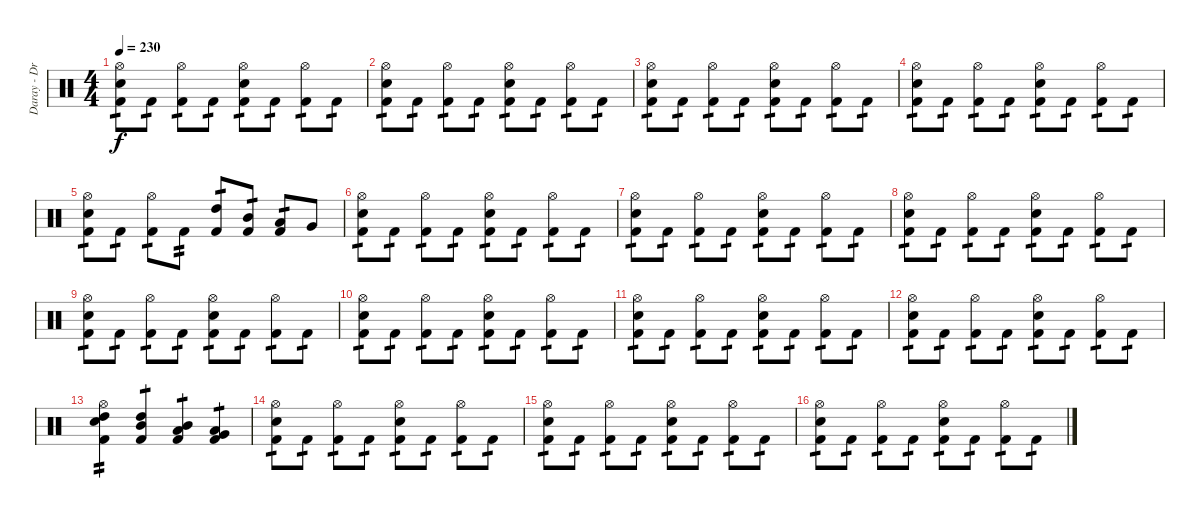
\track ("Daray - Drums" "Daray - Dr") {instrument percussion}
\staff {score}
\articulation defaults
\ts (4 4)
\tempo 230
\clef neutral
\ks c
("Hi-Hat (open)" "Electric Snare (hit)" "Kick (hit) 2").8{tp 1 dy f} "Kick (hit) 2".8{tp 1} ("Hi-Hat (open)" "Kick (hit) 2").8{tp 1} "Kick (hit) 2".8{tp 1} ("Hi-Hat (open)" "Electric Snare (hit)" "Kick (hit) 2").8{tp 1} "Kick (hit) 2".8{tp 1} ("Hi-Hat (open)" "Kick (hit) 2").8{tp 1} "Kick (hit) 2".8{tp 1} |
("Hi-Hat (open)" "Electric Snare (hit)" "Kick (hit) 2").8{tp 1} "Kick (hit) 2".8{tp 1} ("Hi-Hat (open)" "Kick (hit) 2").8{tp 1} "Kick (hit) 2".8{tp 1} ("Hi-Hat (open)" "Electric Snare (hit)" "Kick (hit) 2").8{tp 1} "Kick (hit) 2".8{tp 1} ("Hi-Hat (open)" "Kick (hit) 2").8{tp 1} "Kick (hit) 2".8{tp 1} |
("Hi-Hat (open)" "Electric Snare (hit)" "Kick (hit) 2").8{tp 1} "Kick (hit) 2".8{tp 1} ("Hi-Hat (open)" "Kick (hit) 2").8{tp 1} "Kick (hit) 2".8{tp 1} ("Hi-Hat (open)" "Electric Snare (hit)" "Kick (hit) 2").8{tp 1} "Kick (hit) 2".8{tp 1} ("Hi-Hat (open)" "Kick (hit) 2").8{tp 1} "Kick (hit) 2".8{tp 1} |
("Hi-Hat (open)" "Electric Snare (hit)" "Kick (hit) 2").8{tp 1} "Kick (hit) 2".8{tp 1} ("Hi-Hat (open)" "Kick (hit) 2").8{tp 1} "Kick (hit) 2".8{tp 1} ("Hi-Hat (open)" "Electric Snare (hit)" "Kick (hit) 2").8{tp 1} "Kick (hit) 2".8{tp 1} ("Hi-Hat (open)" "Kick (hit) 2").8{tp 1} "Kick (hit) 2".8{tp 1} |
("Hi-Hat (open)" "Electric Snare (hit)" "Kick (hit) 2").8{tp 1} "Kick (hit) 2".8{tp 1} ("Hi-Hat (open)" "Kick (hit) 2").8{tp 1} "Kick (hit) 2".8{tp 2} ("High Tom (hit)" "Kick (hit) 2").8{tp 1} ("Mid Tom (hit)" "Kick (hit) 2").8{tp 1} ("Low Tom (hit)" "Kick (hit) 2").8{tp 1} "Very Low Tom (hit)".8 |
("Hi-Hat (open)" "Electric Snare (hit)" "Kick (hit) 2").8{tp 1} "Kick (hit) 2".8{tp 1} ("Hi-Hat (open)" "Kick (hit) 2").8{tp 1} "Kick (hit) 2".8{tp 1} ("Hi-Hat (open)" "Electric Snare (hit)" "Kick (hit) 2").8{tp 1} "Kick (hit) 2".8{tp 1} ("Hi-Hat (open)" "Kick (hit) 2").8{tp 1} "Kick (hit) 2".8{tp 1} |
("Hi-Hat (open)" "Electric Snare (hit)" "Kick (hit) 2").8{tp 1} "Kick (hit) 2".8{tp 1} ("Hi-Hat (open)" "Kick (hit) 2").8{tp 1} "Kick (hit) 2".8{tp 1} ("Hi-Hat (open)" "Electric Snare (hit)" "Kick (hit) 2").8{tp 1} "Kick (hit) 2".8{tp 1} ("Hi-Hat (open)" "Kick (hit) 2").8{tp 1} "Kick (hit) 2".8{tp 1} |
("Hi-Hat (open)" "Electric Snare (hit)" "Kick (hit) 2").8{tp 1} "Kick (hit) 2".8{tp 1} ("Hi-Hat (open)" "Kick (hit) 2").8{tp 1} "Kick (hit) 2".8{tp 1} ("Hi-Hat (open)" "Electric Snare (hit)" "Kick (hit) 2").8{tp 1} "Kick (hit) 2".8{tp 1} ("Hi-Hat (open)" "Kick (hit) 2").8{tp 1} "Kick (hit) 2".8{tp 1} |
("Hi-Hat (open)" "Electric Snare (hit)" "Kick (hit) 2").8{tp 1} "Kick (hit) 2".8{tp 1} ("Hi-Hat (open)" "Kick (hit) 2").8{tp 1} "Kick (hit) 2".8{tp 1} ("Hi-Hat (open)" "Electric Snare (hit)" "Kick (hit) 2").8{tp 1} "Kick (hit) 2".8{tp 1} ("Hi-Hat (open)" "Kick (hit) 2").8{tp 1} "Kick (hit) 2".8{tp 1} |
("Hi-Hat (open)" "Electric Snare (hit)" "Kick (hit) 2").8{tp 1} "Kick (hit) 2".8{tp 1} ("Hi-Hat (open)" "Kick (hit) 2").8{tp 1} "Kick (hit) 2".8{tp 1} ("Hi-Hat (open)" "Electric Snare (hit)" "Kick (hit) 2").8{tp 1} "Kick (hit) 2".8{tp 1} ("Hi-Hat (open)" "Kick (hit) 2").8{tp 1} "Kick (hit) 2".8{tp 1} |
("Hi-Hat (open)" "Electric Snare (hit)" "Kick (hit) 2").8{tp 1} "Kick (hit) 2".8{tp 1} ("Hi-Hat (open)" "Kick (hit) 2").8{tp 1} "Kick (hit) 2".8{tp 1} ("Hi-Hat (open)" "Electric Snare (hit)" "Kick (hit) 2").8{tp 1} "Kick (hit) 2".8{tp 1} ("Hi-Hat (open)" "Kick (hit) 2").8{tp 1} "Kick (hit) 2".8{tp 1} |
("Hi-Hat (open)" "Electric Snare (hit)" "Kick (hit) 2").8{tp 1} "Kick (hit) 2".8{tp 1} ("Hi-Hat (open)" "Kick (hit) 2").8{tp 1} "Kick (hit) 2".8{tp 1} ("Hi-Hat (open)" "Electric Snare (hit)" "Kick (hit) 2").8{tp 1} "Kick (hit) 2".8{tp 1} ("Hi-Hat (open)" "Kick (hit) 2").8{tp 1} "Kick (hit) 2".8{tp 1} |
("Hi-Hat (open)" "Electric Snare (hit)" "High Tom (hit)" "Kick (hit) 2").4{tp 2} ("High Tom (hit)" "Mid Tom (hit)" "Kick (hit) 2").4{tp 1} ("Mid Tom (hit)" "Low Tom (hit)" "Kick (hit) 2").4{tp 1} ("Low Tom (hit)" "Very Low Tom (hit)" "Kick (hit) 2").4{tp 1} |
("Hi-Hat (open)" "Electric Snare (hit)" "Kick (hit) 2").8{tp 1} "Kick (hit) 2".8{tp 1} ("Hi-Hat (open)" "Kick (hit) 2").8{tp 1} "Kick (hit) 2".8{tp 1} ("Hi-Hat (open)" "Electric Snare (hit)" "Kick (hit) 2").8{tp 1} "Kick (hit) 2".8{tp 1} ("Hi-Hat (open)" "Kick (hit) 2").8{tp 1} "Kick (hit) 2".8{tp 1} |
("Hi-Hat (open)" "Electric Snare (hit)" "Kick (hit) 2").8{tp 1} "Kick (hit) 2".8{tp 1} ("Hi-Hat (open)" "Kick (hit) 2").8{tp 1} "Kick (hit) 2".8{tp 1} ("Hi-Hat (open)" "Electric Snare (hit)" "Kick (hit) 2").8{tp 1} "Kick (hit) 2".8{tp 1} ("Hi-Hat (open)" "Kick (hit) 2").8{tp 1} "Kick (hit) 2".8{tp 1} |
("Hi-Hat (open)" "Electric Snare (hit)" "Kick (hit) 2").8{tp 1} "Kick (hit) 2".8{tp 1} ("Hi-Hat (open)" "Kick (hit) 2").8{tp 1} "Kick (hit) 2".8{tp 1} ("Hi-Hat (open)" "Electric Snare (hit)" "Kick (hit) 2").8{tp 1} "Kick (hit) 2".8{tp 1} ("Hi-Hat (open)" "Kick (hit) 2").8{tp 1} "Kick (hit) 2".8{tp 1}
